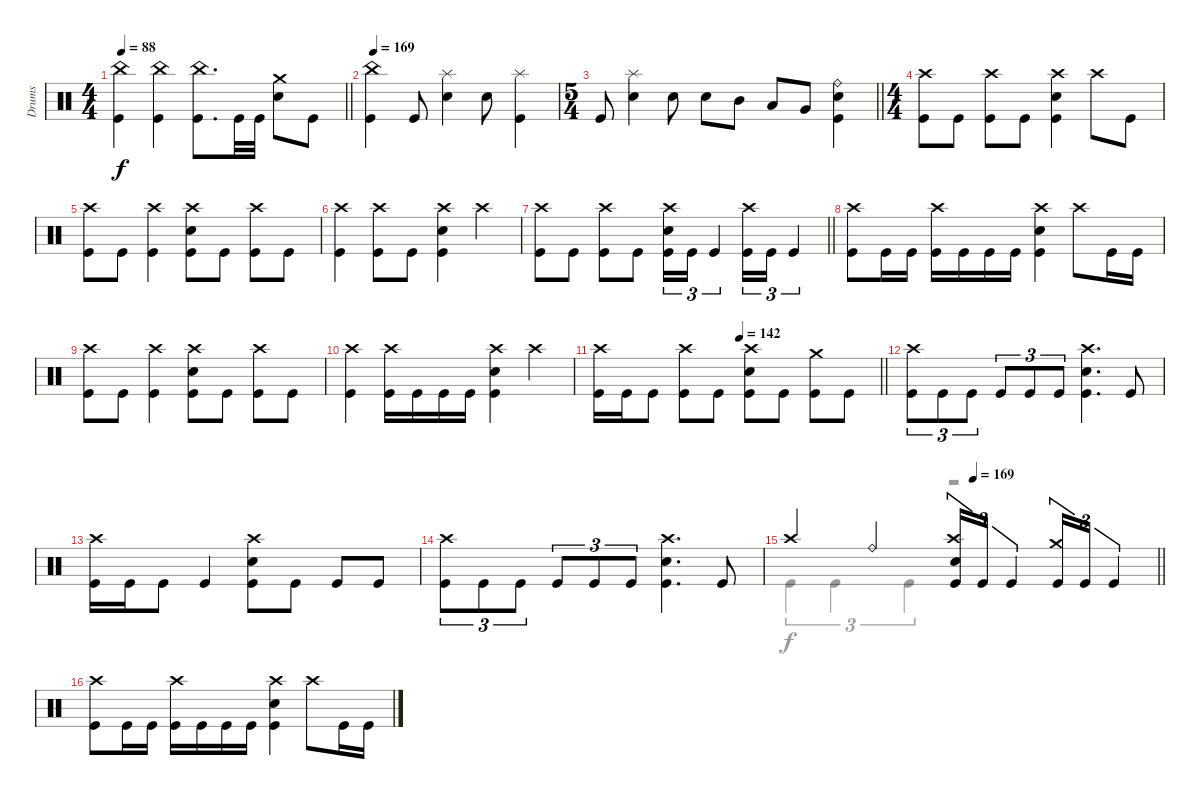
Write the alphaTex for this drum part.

\track ("Drums" "Drums") {instrument percussion}
\staff
\articulation defaults
\voice
\ts (4 4)
\tempo 88
\clef neutral
\barLineRight lightlight
\ks c
("China (hit)" "Kick (hit)").4{dy f} ("China (hit)" "Kick (hit)").4 ("China (hit)" "Kick (hit)").8{d} "Kick (hit)".32 "Kick (hit)".32 ("Crash medium (hit)" "Electric Snare (hit)").8 "Kick (hit)".8 |
\tempo 169
("China (hit)" "Kick (hit)").4 "Kick (hit)".8 ("Splash (hit)" "Electric Snare (hit)").4 "Electric Snare (hit)".8 ("Splash (hit)" "Kick (hit)").4 |
\ts (5 4)
\barLineRight lightlight "Kick (hit)".8
("Splash (hit)" "Electric Snare (hit)").4 "Electric Snare (hit)".8 "Electric Snare (hit)".8 "Mid Tom (hit)".8 "Low Tom (hit)".8 "Very Low Tom (hit)".8 ("Ride (bell)" "Electric Snare (hit)" "Kick (hit)").4 |
\ts (4 4)
\section ("" "")
("Crash high (hit)" "Kick (hit)").8 "Kick (hit)".8 ("Crash high (hit)" "Kick (hit)").8 "Kick (hit)".8 ("Crash high (hit)" "Electric Snare (hit)" "Kick (hit)").4 "Crash high (hit)".8 "Kick (hit)".8 |
("Crash high (hit)" "Kick (hit)").8 "Kick (hit)".8 ("Crash high (hit)" "Kick (hit)").4 ("Crash high (hit)" "Electric Snare (hit)" "Kick (hit)").8 "Kick (hit)".8 ("Crash high (hit)" "Kick (hit)").8 "Kick (hit)".8 |
("Crash high (hit)" "Kick (hit)").4 ("Crash high (hit)" "Kick (hit)").8 "Kick (hit)".8 ("Crash high (hit)" "Electric Snare (hit)" "Kick (hit)").4 "Crash high (hit)".4 |
\barLineRight lightlight
("Crash high (hit)" "Kick (hit)").8 "Kick (hit)".8 ("Crash high (hit)" "Kick (hit)").8 "Kick (hit)".8 ("Crash high (hit)" "Electric Snare (hit)" "Kick (hit)").16{tu (3 2)} "Kick (hit)".16{tu (3 2)} "Kick (hit)".4{tu (3 2)} ("Crash high (hit)" "Kick (hit)").16{tu (3 2)} "Kick (hit)".16{tu (3 2)} "Kick (hit)".4{tu (3 2)} |
("Crash high (hit)" "Kick (hit)").8 "Kick (hit)".16 "Kick (hit)".16 ("Crash high (hit)" "Kick (hit)").16 "Kick (hit)".16 "Kick (hit)".16 "Kick (hit)".16 ("Crash high (hit)" "Electric Snare (hit)" "Kick (hit)").4 "Crash high (hit)".8 "Kick (hit)".16 "Kick (hit)".16 |
("Crash high (hit)" "Kick (hit)").8 "Kick (hit)".8 ("Crash high (hit)" "Kick (hit)").4 ("Crash high (hit)" "Electric Snare (hit)" "Kick (hit)").8 "Kick (hit)".8 ("Crash high (hit)" "Kick (hit)").8 "Kick (hit)".8 |
("Crash high (hit)" "Kick (hit)").4 ("Crash high (hit)" "Kick (hit)").16 "Kick (hit)".16 "Kick (hit)".16 "Kick (hit)".16 ("Crash high (hit)" "Electric Snare (hit)" "Kick (hit)").4 "Crash high (hit)".4 |
\tempo (142 0.5)
\barLineRight lightlight
("Crash high (hit)" "Kick (hit)").16 "Kick (hit)".16 "Kick (hit)".8 ("Crash high (hit)" "Kick (hit)").8 "Kick (hit)".8 ("Crash high (hit)" "Electric Snare (hit)" "Kick (hit)").8 "Kick (hit)".8 ("Crash medium (hit)" "Kick (hit)").8 "Kick (hit)".8 |
("Crash high (hit)" "Kick (hit)").8{tu (3 2)} "Kick (hit)".8{tu (3 2)} "Kick (hit)".8{tu (3 2)} "Kick (hit)".8{tu (3 2)} "Kick (hit)".8{tu (3 2)} "Kick (hit)".8{tu (3 2)} ("Crash high (hit)" "Electric Snare (hit)" "Kick (hit)").4{d} "Kick (hit)".8 |
("Crash high (hit)" "Kick (hit)").16 "Kick (hit)".16 "Kick (hit)".8 "Kick (hit)".4 ("Crash high (hit)" "Electric Snare (hit)" "Kick (hit)").8 "Kick (hit)".8 "Kick (hit)".8 "Kick (hit)".8 |
("Crash high (hit)" "Kick (hit)").8{tu (3 2)} "Kick (hit)".8{tu (3 2)} "Kick (hit)".8{tu (3 2)} "Kick (hit)".8{tu (3 2)} "Kick (hit)".8{tu (3 2)} "Kick (hit)".8{tu (3 2)} ("Crash high (hit)" "Electric Snare (hit)" "Kick (hit)").4{d} "Kick (hit)".8 |
\tempo (169 0.5)
\barLineRight lightlight "Crash high (hit)".4 "Ride (bell)".4
("Crash high (hit)" "Electric Snare (hit)" "Kick (hit)").16{tu (3 2)} "Kick (hit)".16{tu (3 2)} "Kick (hit)".4{tu (3 2)} ("Crash medium (hit)" "Kick (hit)").16{tu (3 2)} "Kick (hit)".16{tu (3 2)} "Kick (hit)".4{tu (3 2)} |
("Crash high (hit)" "Kick (hit)").8 "Kick (hit)".16 "Kick (hit)".16 ("Crash high (hit)" "Kick (hit)").16 "Kick (hit)".16 "Kick (hit)".16 "Kick (hit)".16 ("Crash high (hit)" "Electric Snare (hit)" "Kick (hit)").4 "Crash high (hit)".8 "Kick (hit)".16 "Kick (hit)".16
\voice
\clef neutral
\ottava regular
\simile none
\barLineRight lightlight
\ks c
|
|
\barLineRight lightlight
|
|
|
|
\barLineRight lightlight
|
|
|
|
\barLineRight lightlight
|
|
|
|
\barLineRight lightlight "Kick (hit)".4{tu (3 2)} "Kick (hit)".4{tu (3 2)} "Kick (hit)".4{tu (3 2)}
r.2 |
